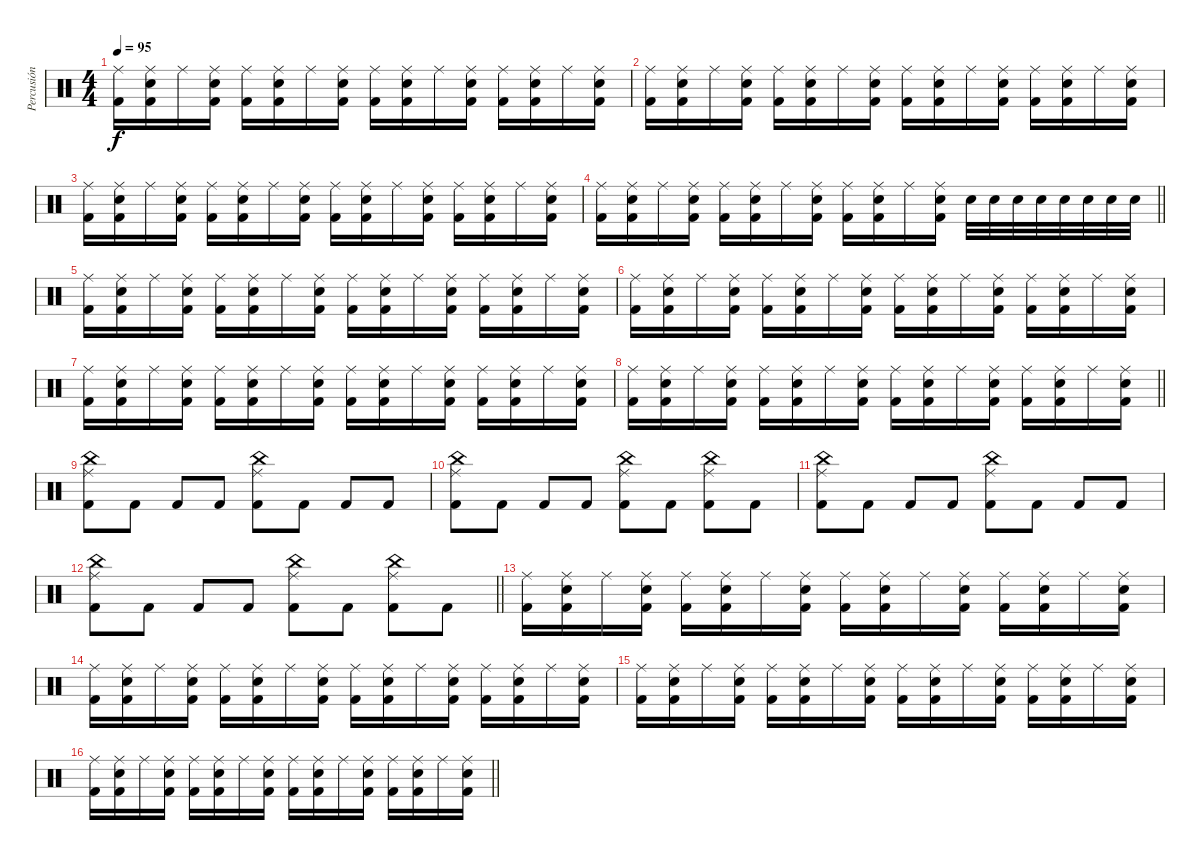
\track ("Percusión" "Percusión") {instrument percussion}
\staff {score}
\articulation defaults
\ts (4 4)
\tempo 95
\clef neutral
\ks c
("Ride (middle)" "Kick (hit) 2").16{dy f} ("Ride (middle)" "Snare (hit) 2" "Kick (hit) 2").16 "Ride (middle)".16 ("Ride (middle)" "Snare (hit) 2" "Kick (hit) 2").16 ("Ride (middle)" "Kick (hit) 2").16 ("Ride (middle)" "Snare (hit) 2" "Kick (hit) 2").16 "Ride (middle)".16 ("Ride (middle)" "Snare (hit) 2" "Kick (hit) 2").16 ("Ride (middle)" "Kick (hit) 2").16 ("Ride (middle)" "Snare (hit) 2" "Kick (hit) 2").16 "Ride (middle)".16 ("Ride (middle)" "Snare (hit) 2" "Kick (hit) 2").16 ("Ride (middle)" "Kick (hit) 2").16 ("Ride (middle)" "Snare (hit) 2" "Kick (hit) 2").16 "Ride (middle)".16 ("Ride (middle)" "Snare (hit) 2" "Kick (hit) 2").16 |
("Ride (middle)" "Kick (hit) 2").16 ("Ride (middle)" "Snare (hit) 2" "Kick (hit) 2").16 "Ride (middle)".16 ("Ride (middle)" "Snare (hit) 2" "Kick (hit) 2").16 ("Ride (middle)" "Kick (hit) 2").16 ("Ride (middle)" "Snare (hit) 2" "Kick (hit) 2").16 "Ride (middle)".16 ("Ride (middle)" "Snare (hit) 2" "Kick (hit) 2").16 ("Ride (middle)" "Kick (hit) 2").16 ("Ride (middle)" "Snare (hit) 2" "Kick (hit) 2").16 "Ride (middle)".16 ("Ride (middle)" "Snare (hit) 2" "Kick (hit) 2").16 ("Ride (middle)" "Kick (hit) 2").16 ("Ride (middle)" "Snare (hit) 2" "Kick (hit) 2").16 "Ride (middle)".16 ("Ride (middle)" "Snare (hit) 2" "Kick (hit) 2").16 |
("Ride (middle)" "Kick (hit) 2").16 ("Ride (middle)" "Snare (hit) 2" "Kick (hit) 2").16 "Ride (middle)".16 ("Ride (middle)" "Snare (hit) 2" "Kick (hit) 2").16 ("Ride (middle)" "Kick (hit) 2").16 ("Ride (middle)" "Snare (hit) 2" "Kick (hit) 2").16 "Ride (middle)".16 ("Ride (middle)" "Snare (hit) 2" "Kick (hit) 2").16 ("Ride (middle)" "Kick (hit) 2").16 ("Ride (middle)" "Snare (hit) 2" "Kick (hit) 2").16 "Ride (middle)".16 ("Ride (middle)" "Snare (hit) 2" "Kick (hit) 2").16 ("Ride (middle)" "Kick (hit) 2").16 ("Ride (middle)" "Snare (hit) 2" "Kick (hit) 2").16 "Ride (middle)".16 ("Ride (middle)" "Snare (hit) 2" "Kick (hit) 2").16 |
\barLineRight lightlight
("Ride (middle)" "Kick (hit) 2").16 ("Ride (middle)" "Snare (hit) 2" "Kick (hit) 2").16 "Ride (middle)".16 ("Ride (middle)" "Snare (hit) 2" "Kick (hit) 2").16 ("Ride (middle)" "Kick (hit) 2").16 ("Ride (middle)" "Snare (hit) 2" "Kick (hit) 2").16 "Ride (middle)".16 ("Ride (middle)" "Snare (hit) 2" "Kick (hit) 2").16 ("Ride (middle)" "Kick (hit) 2").16 ("Ride (middle)" "Snare (hit) 2" "Kick (hit) 2").16 "Ride (middle)".16 ("Ride (middle)" "Snare (hit) 2" "Kick (hit) 2").16 "Snare (hit) 2".32 "Snare (hit) 2".32 "Snare (hit) 2".32 "Snare (hit) 2".32 "Snare (hit) 2".32 "Snare (hit) 2".32 "Snare (hit) 2".32 "Snare (hit) 2".32 |
("Ride (middle)" "Kick (hit) 2").16 ("Ride (middle)" "Snare (hit) 2" "Kick (hit) 2").16 "Ride (middle)".16 ("Ride (middle)" "Snare (hit) 2" "Kick (hit) 2").16 ("Ride (middle)" "Kick (hit) 2").16 ("Ride (middle)" "Snare (hit) 2" "Kick (hit) 2").16 "Ride (middle)".16 ("Ride (middle)" "Snare (hit) 2" "Kick (hit) 2").16 ("Ride (middle)" "Kick (hit) 2").16 ("Ride (middle)" "Snare (hit) 2" "Kick (hit) 2").16 "Ride (middle)".16 ("Ride (middle)" "Snare (hit) 2" "Kick (hit) 2").16 ("Ride (middle)" "Kick (hit) 2").16 ("Ride (middle)" "Snare (hit) 2" "Kick (hit) 2").16 "Ride (middle)".16 ("Ride (middle)" "Snare (hit) 2" "Kick (hit) 2").16 |
("Ride (middle)" "Kick (hit) 2").16 ("Ride (middle)" "Snare (hit) 2" "Kick (hit) 2").16 "Ride (middle)".16 ("Ride (middle)" "Snare (hit) 2" "Kick (hit) 2").16 ("Ride (middle)" "Kick (hit) 2").16 ("Ride (middle)" "Snare (hit) 2" "Kick (hit) 2").16 "Ride (middle)".16 ("Ride (middle)" "Snare (hit) 2" "Kick (hit) 2").16 ("Ride (middle)" "Kick (hit) 2").16 ("Ride (middle)" "Snare (hit) 2" "Kick (hit) 2").16 "Ride (middle)".16 ("Ride (middle)" "Snare (hit) 2" "Kick (hit) 2").16 ("Ride (middle)" "Kick (hit) 2").16 ("Ride (middle)" "Snare (hit) 2" "Kick (hit) 2").16 "Ride (middle)".16 ("Ride (middle)" "Snare (hit) 2" "Kick (hit) 2").16 |
("Ride (middle)" "Kick (hit) 2").16 ("Ride (middle)" "Snare (hit) 2" "Kick (hit) 2").16 "Ride (middle)".16 ("Ride (middle)" "Snare (hit) 2" "Kick (hit) 2").16 ("Ride (middle)" "Kick (hit) 2").16 ("Ride (middle)" "Snare (hit) 2" "Kick (hit) 2").16 "Ride (middle)".16 ("Ride (middle)" "Snare (hit) 2" "Kick (hit) 2").16 ("Ride (middle)" "Kick (hit) 2").16 ("Ride (middle)" "Snare (hit) 2" "Kick (hit) 2").16 "Ride (middle)".16 ("Ride (middle)" "Snare (hit) 2" "Kick (hit) 2").16 ("Ride (middle)" "Kick (hit) 2").16 ("Ride (middle)" "Snare (hit) 2" "Kick (hit) 2").16 "Ride (middle)".16 ("Ride (middle)" "Snare (hit) 2" "Kick (hit) 2").16 |
\barLineRight lightlight
("Ride (middle)" "Kick (hit) 2").16 ("Ride (middle)" "Snare (hit) 2" "Kick (hit) 2").16 "Ride (middle)".16 ("Ride (middle)" "Snare (hit) 2" "Kick (hit) 2").16 ("Ride (middle)" "Kick (hit) 2").16 ("Ride (middle)" "Snare (hit) 2" "Kick (hit) 2").16 "Ride (middle)".16 ("Ride (middle)" "Snare (hit) 2" "Kick (hit) 2").16 ("Ride (middle)" "Kick (hit) 2").16 ("Ride (middle)" "Snare (hit) 2" "Kick (hit) 2").16 "Ride (middle)".16 ("Ride (middle)" "Snare (hit) 2" "Kick (hit) 2").16 ("Ride (middle)" "Kick (hit) 2").16 ("Ride (middle)" "Snare (hit) 2" "Kick (hit) 2").16 "Ride (middle)".16 ("Ride (middle)" "Snare (hit) 2" "Kick (hit) 2").16 |
("China (hit)" "Ride (middle)" "Kick (hit) 2").8 "Kick (hit) 2".8 "Kick (hit) 2".8 "Kick (hit) 2".8 ("China (hit)" "Ride (middle)" "Kick (hit) 2").8 "Kick (hit) 2".8 "Kick (hit) 2".8 "Kick (hit) 2".8 |
("China (hit)" "Ride (middle)" "Kick (hit) 2").8 "Kick (hit) 2".8 "Kick (hit) 2".8 "Kick (hit) 2".8 ("Ride (middle)" "China (hit)" "Kick (hit) 2").8 "Kick (hit) 2".8 ("Ride (middle)" "China (hit)" "Kick (hit) 2").8 "Kick (hit) 2".8 |
("China (hit)" "Ride (middle)" "Kick (hit) 2").8 "Kick (hit) 2".8 "Kick (hit) 2".8 "Kick (hit) 2".8 ("China (hit)" "Ride (middle)" "Kick (hit) 2").8 "Kick (hit) 2".8 "Kick (hit) 2".8 "Kick (hit) 2".8 |
\barLineRight lightlight
("China (hit)" "Ride (middle)" "Kick (hit) 2").8 "Kick (hit) 2".8 "Kick (hit) 2".8 "Kick (hit) 2".8 ("China (hit)" "Ride (middle)" "Kick (hit) 2").8 "Kick (hit) 2".8 ("China (hit)" "Ride (middle)" "Kick (hit) 2").8 "Kick (hit) 2".8 |
("Ride (middle)" "Kick (hit) 2").16 ("Ride (middle)" "Snare (hit) 2" "Kick (hit) 2").16 "Ride (middle)".16 ("Ride (middle)" "Snare (hit) 2" "Kick (hit) 2").16 ("Ride (middle)" "Kick (hit) 2").16 ("Ride (middle)" "Snare (hit) 2" "Kick (hit) 2").16 "Ride (middle)".16 ("Ride (middle)" "Snare (hit) 2" "Kick (hit) 2").16 ("Ride (middle)" "Kick (hit) 2").16 ("Ride (middle)" "Snare (hit) 2" "Kick (hit) 2").16 "Ride (middle)".16 ("Ride (middle)" "Snare (hit) 2" "Kick (hit) 2").16 ("Ride (middle)" "Kick (hit) 2").16 ("Ride (middle)" "Snare (hit) 2" "Kick (hit) 2").16 "Ride (middle)".16 ("Ride (middle)" "Snare (hit) 2" "Kick (hit) 2").16 |
("Ride (middle)" "Kick (hit) 2").16 ("Ride (middle)" "Snare (hit) 2" "Kick (hit) 2").16 "Ride (middle)".16 ("Ride (middle)" "Snare (hit) 2" "Kick (hit) 2").16 ("Ride (middle)" "Kick (hit) 2").16 ("Ride (middle)" "Snare (hit) 2" "Kick (hit) 2").16 "Ride (middle)".16 ("Ride (middle)" "Snare (hit) 2" "Kick (hit) 2").16 ("Ride (middle)" "Kick (hit) 2").16 ("Ride (middle)" "Snare (hit) 2" "Kick (hit) 2").16 "Ride (middle)".16 ("Ride (middle)" "Snare (hit) 2" "Kick (hit) 2").16 ("Ride (middle)" "Kick (hit) 2").16 ("Ride (middle)" "Snare (hit) 2" "Kick (hit) 2").16 "Ride (middle)".16 ("Ride (middle)" "Snare (hit) 2" "Kick (hit) 2").16 |
("Ride (middle)" "Kick (hit) 2").16 ("Ride (middle)" "Snare (hit) 2" "Kick (hit) 2").16 "Ride (middle)".16 ("Ride (middle)" "Snare (hit) 2" "Kick (hit) 2").16 ("Ride (middle)" "Kick (hit) 2").16 ("Ride (middle)" "Snare (hit) 2" "Kick (hit) 2").16 "Ride (middle)".16 ("Ride (middle)" "Snare (hit) 2" "Kick (hit) 2").16 ("Ride (middle)" "Kick (hit) 2").16 ("Ride (middle)" "Snare (hit) 2" "Kick (hit) 2").16 "Ride (middle)".16 ("Ride (middle)" "Snare (hit) 2" "Kick (hit) 2").16 ("Ride (middle)" "Kick (hit) 2").16 ("Ride (middle)" "Snare (hit) 2" "Kick (hit) 2").16 "Ride (middle)".16 ("Ride (middle)" "Snare (hit) 2" "Kick (hit) 2").16 |
\barLineRight lightlight
("Ride (middle)" "Kick (hit) 2").16 ("Ride (middle)" "Snare (hit) 2" "Kick (hit) 2").16 "Ride (middle)".16 ("Ride (middle)" "Snare (hit) 2" "Kick (hit) 2").16 ("Ride (middle)" "Kick (hit) 2").16 ("Ride (middle)" "Snare (hit) 2" "Kick (hit) 2").16 "Ride (middle)".16 ("Ride (middle)" "Snare (hit) 2" "Kick (hit) 2").16 ("Ride (middle)" "Kick (hit) 2").16 ("Ride (middle)" "Snare (hit) 2" "Kick (hit) 2").16 "Ride (middle)".16 ("Ride (middle)" "Snare (hit) 2" "Kick (hit) 2").16 ("Ride (middle)" "Kick (hit) 2").16 ("Ride (middle)" "Snare (hit) 2" "Kick (hit) 2").16 "Ride (middle)".16 ("Ride (middle)" "Snare (hit) 2" "Kick (hit) 2").16
